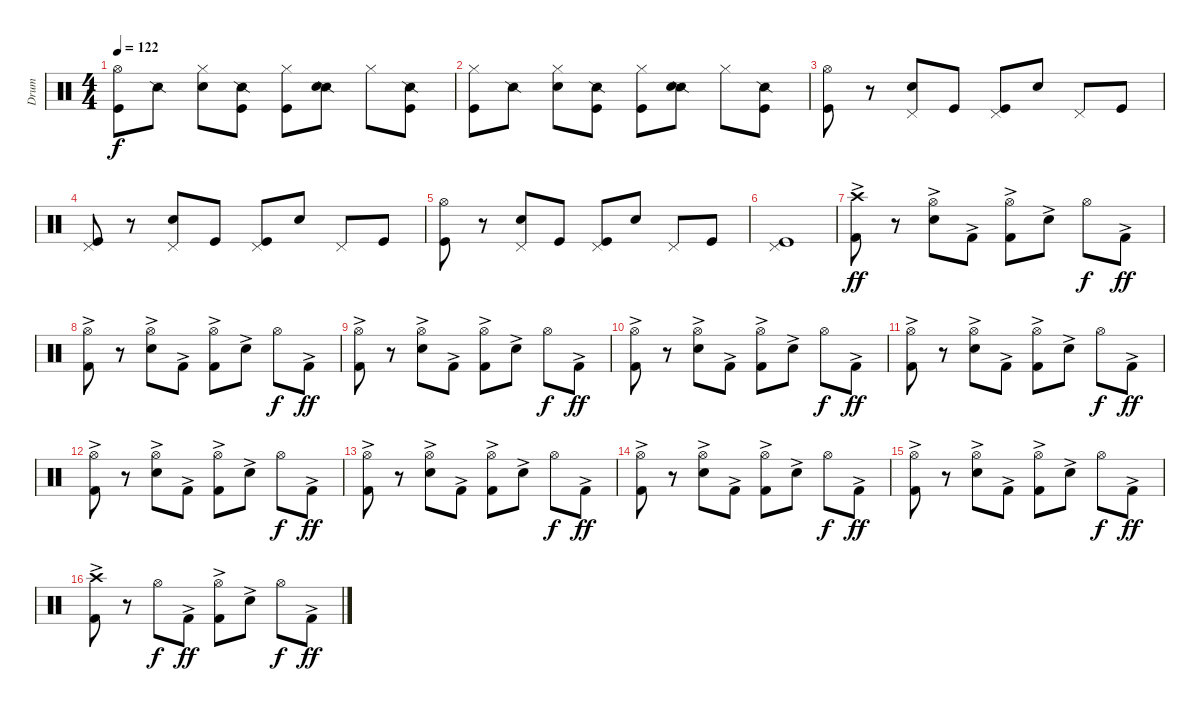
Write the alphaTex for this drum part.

\track ("Drum" "Drum") {instrument percussion}
\staff {score}
\articulation defaults
\ts (4 4)
\tempo 122
\clef neutral
\ks c
("Hi-Hat (open)" "Kick (hit)").8{dy f} "Snare (side stick) 2".8 ("Hi-Hat (closed)" "Electric Snare (hit)").8 ("Snare (side stick) 2" "Kick (hit)").8 ("Hi-Hat (closed)" "Kick (hit)").8 ("Snare (side stick) 2" "Electric Snare (hit)").8 "Hi-Hat (closed)".8 ("Snare (side stick) 2" "Kick (hit)").8 |
("Hi-Hat (closed)" "Kick (hit)").8 "Snare (side stick) 2".8 ("Hi-Hat (closed)" "Electric Snare (hit)").8 ("Snare (side stick) 2" "Kick (hit)").8 ("Hi-Hat (closed)" "Kick (hit)").8 ("Snare (side stick) 2" "Electric Snare (hit)").8 "Hi-Hat (closed)".8 ("Snare (side stick) 2" "Kick (hit)").8 |
("Hi-Hat (open)" "Kick (hit)").8 r.8 ("Pedal Hi-Hat (hit)" "Electric Snare (hit)").8 "Kick (hit)".8 ("Pedal Hi-Hat (hit)" "Kick (hit)").8 "Electric Snare (hit)".8 "Pedal Hi-Hat (hit)".8 "Kick (hit)".8 |
("Pedal Hi-Hat (hit)" "Kick (hit)").8 r.8 ("Pedal Hi-Hat (hit)" "Electric Snare (hit)").8 "Kick (hit)".8 ("Pedal Hi-Hat (hit)" "Kick (hit)").8 "Electric Snare (hit)".8 "Pedal Hi-Hat (hit)".8 "Kick (hit)".8 |
("Hi-Hat (open)" "Kick (hit)").8 r.8 ("Pedal Hi-Hat (hit)" "Electric Snare (hit)").8 "Kick (hit)".8 ("Pedal Hi-Hat (hit)" "Kick (hit)").8 "Electric Snare (hit)".8 "Pedal Hi-Hat (hit)".8 "Kick (hit)".8 |
("Pedal Hi-Hat (hit)" "Kick (hit)").1 |
("Crash high (hit)" "Kick (hit) 2"{ac}).8{dy ff volume 16} r.8 ("Hi-Hat (open)" "Electric Snare (hit)"{ac}).8 "Kick (hit) 2"{ac}.8 ("Hi-Hat (open)" "Kick (hit) 2"{ac}).8 "Electric Snare (hit)"{ac}.8 "Hi-Hat (open)".8{dy f} "Kick (hit) 2"{ac}.8{dy ff} |
("Hi-Hat (open)" "Kick (hit) 2"{ac}).8 r.8 ("Hi-Hat (open)" "Electric Snare (hit)"{ac}).8 "Kick (hit) 2"{ac}.8 ("Hi-Hat (open)" "Kick (hit) 2"{ac}).8 "Electric Snare (hit)"{ac}.8 "Hi-Hat (open)".8{dy f} "Kick (hit) 2"{ac}.8{dy ff} |
("Hi-Hat (open)" "Kick (hit) 2"{ac}).8 r.8 ("Hi-Hat (open)" "Electric Snare (hit)"{ac}).8 "Kick (hit) 2"{ac}.8 ("Hi-Hat (open)" "Kick (hit) 2"{ac}).8 "Electric Snare (hit)"{ac}.8 "Hi-Hat (open)".8{dy f} "Kick (hit) 2"{ac}.8{dy ff} |
("Hi-Hat (open)" "Kick (hit) 2"{ac}).8 r.8 ("Hi-Hat (open)" "Electric Snare (hit)"{ac}).8 "Kick (hit) 2"{ac}.8 ("Hi-Hat (open)" "Kick (hit) 2"{ac}).8 "Electric Snare (hit)"{ac}.8 "Hi-Hat (open)".8{dy f} "Kick (hit) 2"{ac}.8{dy ff} |
("Hi-Hat (open)" "Kick (hit) 2"{ac}).8 r.8 ("Hi-Hat (open)" "Electric Snare (hit)"{ac}).8 "Kick (hit) 2"{ac}.8 ("Hi-Hat (open)" "Kick (hit) 2"{ac}).8 "Electric Snare (hit)"{ac}.8 "Hi-Hat (open)".8{dy f} "Kick (hit) 2"{ac}.8{dy ff} |
("Hi-Hat (open)" "Kick (hit) 2"{ac}).8 r.8 ("Hi-Hat (open)" "Electric Snare (hit)"{ac}).8 "Kick (hit) 2"{ac}.8 ("Hi-Hat (open)" "Kick (hit) 2"{ac}).8 "Electric Snare (hit)"{ac}.8 "Hi-Hat (open)".8{dy f} "Kick (hit) 2"{ac}.8{dy ff} |
("Hi-Hat (open)" "Kick (hit) 2"{ac}).8 r.8 ("Hi-Hat (open)" "Electric Snare (hit)"{ac}).8 "Kick (hit) 2"{ac}.8 ("Hi-Hat (open)" "Kick (hit) 2"{ac}).8 "Electric Snare (hit)"{ac}.8 "Hi-Hat (open)".8{dy f} "Kick (hit) 2"{ac}.8{dy ff} |
("Hi-Hat (open)" "Kick (hit) 2"{ac}).8 r.8 ("Hi-Hat (open)" "Electric Snare (hit)"{ac}).8 "Kick (hit) 2"{ac}.8 ("Hi-Hat (open)" "Kick (hit) 2"{ac}).8 "Electric Snare (hit)"{ac}.8 "Hi-Hat (open)".8{dy f} "Kick (hit) 2"{ac}.8{dy ff} |
("Hi-Hat (open)" "Kick (hit) 2"{ac}).8 r.8 ("Hi-Hat (open)" "Electric Snare (hit)"{ac}).8 "Kick (hit) 2"{ac}.8 ("Hi-Hat (open)" "Kick (hit) 2"{ac}).8 "Electric Snare (hit)"{ac}.8 "Hi-Hat (open)".8{dy f} "Kick (hit) 2"{ac}.8{dy ff} |
("Crash high (hit)" "Kick (hit) 2"{ac}).8 r.8 "Hi-Hat (open)".8{dy f} "Kick (hit) 2"{ac}.8{dy ff} ("Hi-Hat (open)" "Kick (hit) 2"{ac}).8 "Electric Snare (hit)"{ac}.8 "Hi-Hat (open)".8{dy f} "Kick (hit) 2"{ac}.8{dy ff}
